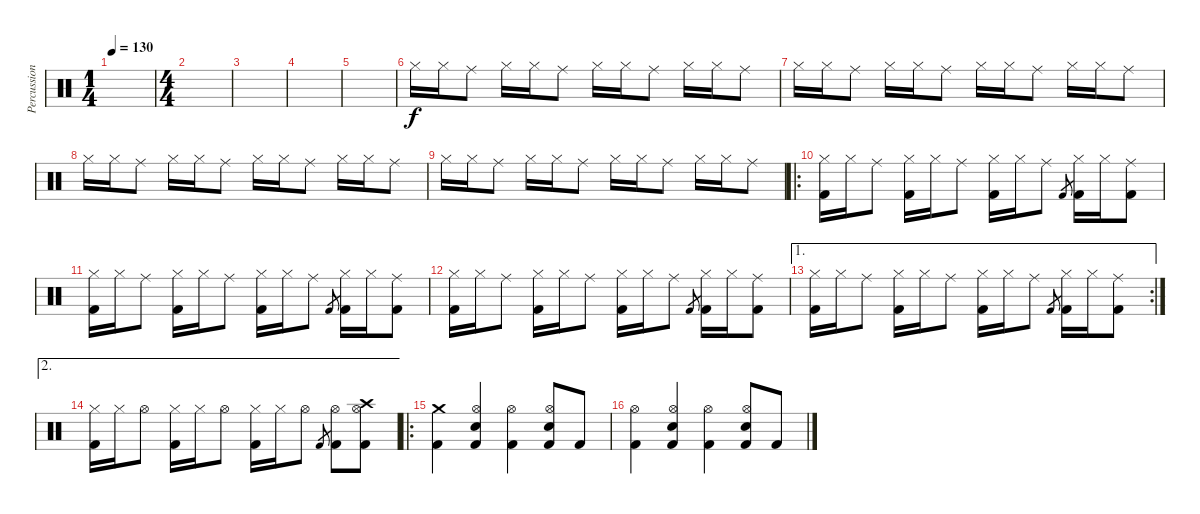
\track ("Percussion" "Percussion") {instrument percussion}
\staff {score}
\articulation defaults
\ts (1 4)
\tempo 130
\clef neutral
\ks c
|
\ts (4 4)
|
|
|
|
"Hi-Hat (closed)".16 "Hi-Hat (closed)".16 "Ride (middle)".8 "Hi-Hat (closed)".16 "Hi-Hat (closed)".16 "Ride (middle)".8 "Hi-Hat (closed)".16 "Hi-Hat (closed)".16 "Ride (middle)".8 "Hi-Hat (closed)".16 "Hi-Hat (closed)".16 "Ride (middle)".8 |
"Hi-Hat (closed)".16 "Hi-Hat (closed)".16 "Ride (middle)".8 "Hi-Hat (closed)".16 "Hi-Hat (closed)".16 "Ride (middle)".8 "Hi-Hat (closed)".16 "Hi-Hat (closed)".16 "Ride (middle)".8 "Hi-Hat (closed)".16 "Hi-Hat (closed)".16 "Ride (middle)".8 |
"Hi-Hat (closed)".16 "Hi-Hat (closed)".16 "Ride (middle)".8 "Hi-Hat (closed)".16 "Hi-Hat (closed)".16 "Ride (middle)".8 "Hi-Hat (closed)".16 "Hi-Hat (closed)".16 "Ride (middle)".8 "Hi-Hat (closed)".16 "Hi-Hat (closed)".16 "Ride (middle)".8 |
"Hi-Hat (closed)".16 "Hi-Hat (closed)".16 "Ride (middle)".8 "Hi-Hat (closed)".16 "Hi-Hat (closed)".16 "Ride (middle)".8 "Hi-Hat (closed)".16 "Hi-Hat (closed)".16 "Ride (middle)".8 "Hi-Hat (closed)".16 "Hi-Hat (closed)".16 "Ride (middle)".8 |
\ro
("Hi-Hat (closed)" "Kick (hit) 2").16 "Hi-Hat (closed)".16 "Ride (middle)".8 ("Hi-Hat (closed)" "Kick (hit) 2").16 "Hi-Hat (closed)".16 "Ride (middle)".8 ("Hi-Hat (closed)" "Kick (hit) 2").16 "Hi-Hat (closed)".16 "Ride (middle)".8 "Kick (hit) 2".8{gr} ("Hi-Hat (closed)" "Kick (hit) 2").16 "Hi-Hat (closed)".16 ("Ride (middle)" "Kick (hit) 2").8 |
("Hi-Hat (closed)" "Kick (hit) 2").16 "Hi-Hat (closed)".16 "Ride (middle)".8 ("Hi-Hat (closed)" "Kick (hit) 2").16 "Hi-Hat (closed)".16 "Ride (middle)".8 ("Hi-Hat (closed)" "Kick (hit) 2").16 "Hi-Hat (closed)".16 "Ride (middle)".8 "Kick (hit) 2".8{gr} ("Hi-Hat (closed)" "Kick (hit) 2").16 "Hi-Hat (closed)".16 ("Ride (middle)" "Kick (hit) 2").8 |
("Hi-Hat (closed)" "Kick (hit) 2").16 "Hi-Hat (closed)".16 "Ride (middle)".8 ("Hi-Hat (closed)" "Kick (hit) 2").16 "Hi-Hat (closed)".16 "Ride (middle)".8 ("Hi-Hat (closed)" "Kick (hit) 2").16 "Hi-Hat (closed)".16 "Ride (middle)".8 "Kick (hit) 2".8{gr} ("Hi-Hat (closed)" "Kick (hit) 2").16 "Hi-Hat (closed)".16 ("Ride (middle)" "Kick (hit) 2").8 |
\ae 1
\rc 2
("Hi-Hat (closed)" "Kick (hit) 2").16 "Hi-Hat (closed)".16 "Ride (middle)".8 ("Hi-Hat (closed)" "Kick (hit) 2").16 "Hi-Hat (closed)".16 "Ride (middle)".8 ("Hi-Hat (closed)" "Kick (hit) 2").16 "Hi-Hat (closed)".16 "Ride (middle)".8 "Kick (hit) 2".8{gr} ("Hi-Hat (closed)" "Kick (hit) 2").16 "Hi-Hat (closed)".16 ("Ride (middle)" "Kick (hit) 2").8 |
\ae 2
("Hi-Hat (closed)" "Kick (hit) 2").16 "Hi-Hat (closed)".16 "Hi-Hat (open)".8 ("Hi-Hat (closed)" "Kick (hit) 2").16 "Hi-Hat (closed)".16 "Hi-Hat (open)".8 ("Hi-Hat (closed)" "Kick (hit) 2").16 "Hi-Hat (closed)".16 "Hi-Hat (open)".8 "Kick (hit) 2".8{gr} ("Hi-Hat (open)" "Kick (hit) 2").8 ("Crash high (hit)" "Hi-Hat (open)" "Kick (hit) 2").8 |
\ro
("Crash medium (hit)" "Kick (hit) 2").4 ("Hi-Hat (open)" "Electric Snare (hit)" "Kick (hit) 2").4 ("Hi-Hat (open)" "Kick (hit) 2").4 ("Hi-Hat (open)" "Electric Snare (hit)" "Kick (hit) 2").8 "Kick (hit) 2".8 |
("Hi-Hat (open)" "Kick (hit) 2").4 ("Hi-Hat (open)" "Electric Snare (hit)" "Kick (hit) 2").4 ("Hi-Hat (open)" "Kick (hit) 2").4 ("Hi-Hat (open)" "Electric Snare (hit)" "Kick (hit) 2").8 "Kick (hit) 2".8
